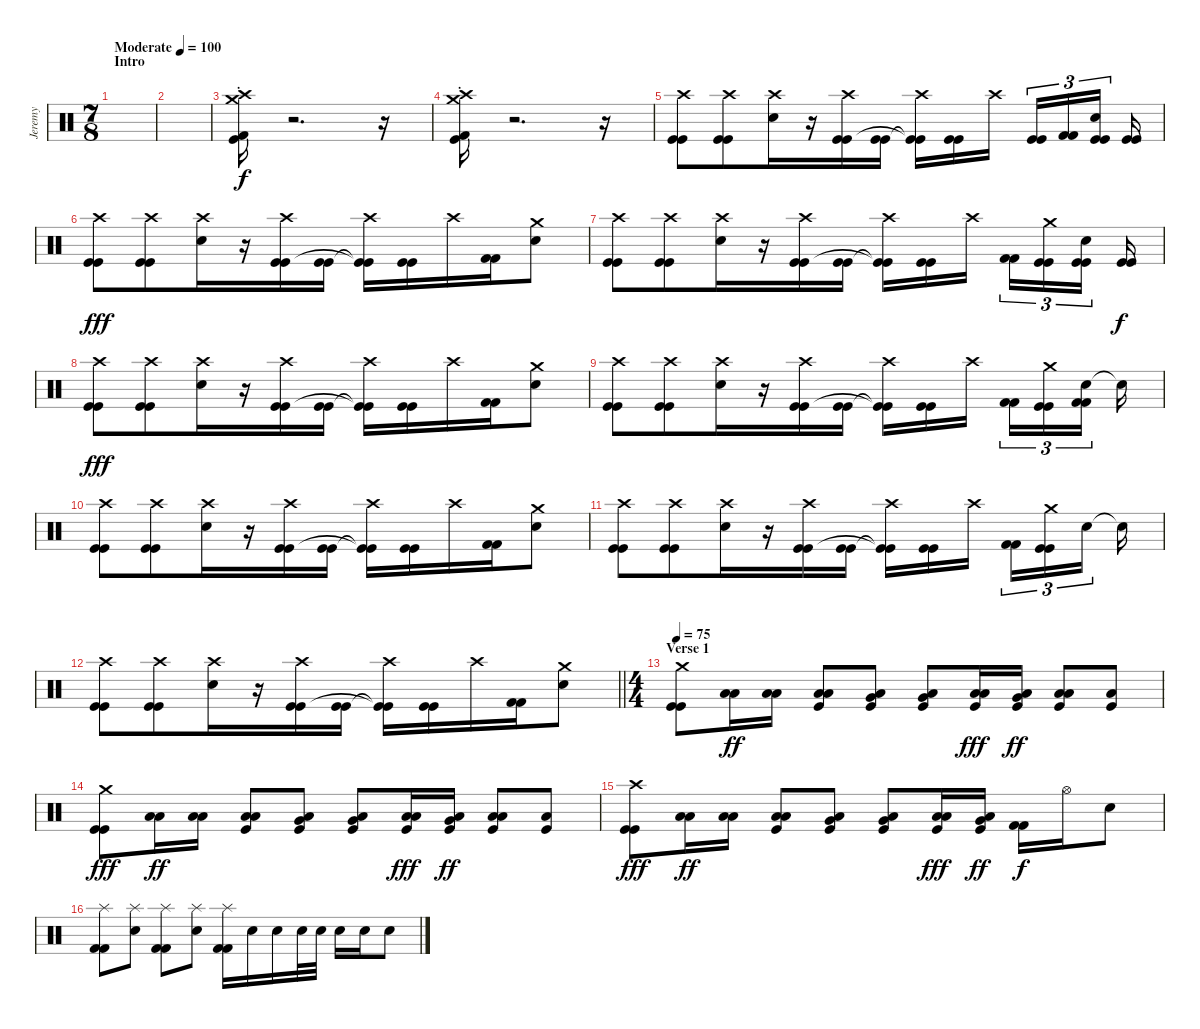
\track ("Jeremy" "Jeremy") {instrument percussion}
\staff {score}
\articulation defaults
\ts (7 8)
\section ("" "Intro")
\tempo (100 "Moderate")
\clef neutral
\ks c
|
|
("Crash high (hit)" "Crash medium (hit)" "Kick (hit) 2"{st} "Kick (hit)").16 r.2{d} r.16 |
("Crash high (hit)" "Crash medium (hit)" "Kick (hit) 2"{st} "Kick (hit)").16 r.2{d} r.16 |
("Crash high (hit)" "Kick (hit)" "Kick (hit)").8 ("Crash high (hit)" "Kick (hit)" "Kick (hit)").8 ("Crash high (hit)" "Electric Snare (hit)").16 r.16 ("Crash high (hit)" "Kick (hit)" "Kick (hit)").16 ("Kick (hit)" "Kick (hit)").16 ("Crash high (hit)" "Kick (hit)"{t} "Kick (hit)"{t}).16 ("Kick (hit)" "Kick (hit)").16 "Crash high (hit)".16{beam splitsecondary} ("Kick (hit)" "Kick (hit)").16{tu (3 2) dy f} ("Kick (hit) 2" "Kick (hit) 2").16{tu (3 2)} ("Electric Snare (hit)" "Kick (hit)" "Kick (hit)").16{tu (3 2)} ("Kick (hit)" "Kick (hit)").16 |
("Crash high (hit)" "Kick (hit)" "Kick (hit)").8{dy fff} ("Crash high (hit)" "Kick (hit)" "Kick (hit)").8 ("Crash high (hit)" "Electric Snare (hit)").16 r.16 ("Crash high (hit)" "Kick (hit)" "Kick (hit)").16 ("Kick (hit)" "Kick (hit)").16 ("Crash high (hit)" "Kick (hit)"{t} "Kick (hit)"{t}).16 ("Kick (hit)" "Kick (hit)").16 "Crash high (hit)".16 ("Kick (hit) 2" "Kick (hit) 2").16 ("Crash medium (hit)" "Electric Snare (hit)").8 |
("Crash high (hit)" "Kick (hit)" "Kick (hit)").8 ("Crash high (hit)" "Kick (hit)" "Kick (hit)").8 ("Crash high (hit)" "Electric Snare (hit)").16 r.16 ("Crash high (hit)" "Kick (hit)" "Kick (hit)").16 ("Kick (hit)" "Kick (hit)").16 ("Crash high (hit)" "Kick (hit)"{t} "Kick (hit)"{t}).16 ("Kick (hit)" "Kick (hit)").16 "Crash high (hit)".16{beam splitsecondary} ("Kick (hit) 2" "Kick (hit) 2").16{tu (3 2)} ("Crash medium (hit)" "Kick (hit)" "Kick (hit)").16{tu (3 2)} ("Electric Snare (hit)" "Kick (hit)" "Kick (hit)").16{tu (3 2)} ("Kick (hit)" "Kick (hit)").16{dy f} |
("Crash high (hit)" "Kick (hit)" "Kick (hit)").8{dy fff} ("Crash high (hit)" "Kick (hit)" "Kick (hit)").8 ("Crash high (hit)" "Electric Snare (hit)").16 r.16 ("Crash high (hit)" "Kick (hit)" "Kick (hit)").16 ("Kick (hit)" "Kick (hit)").16 ("Crash high (hit)" "Kick (hit)"{t} "Kick (hit)"{t}).16 ("Kick (hit)" "Kick (hit)").16 "Crash high (hit)".16 ("Kick (hit) 2" "Kick (hit) 2").16 ("Crash medium (hit)" "Electric Snare (hit)").8 |
("Crash high (hit)" "Kick (hit)" "Kick (hit)").8 ("Crash high (hit)" "Kick (hit)" "Kick (hit)").8 ("Crash high (hit)" "Electric Snare (hit)").16 r.16 ("Crash high (hit)" "Kick (hit)" "Kick (hit)").16 ("Kick (hit)" "Kick (hit)").16 ("Crash high (hit)" "Kick (hit)"{t} "Kick (hit)"{t}).16 ("Kick (hit)" "Kick (hit)").16 "Crash high (hit)".16{beam splitsecondary} ("Kick (hit) 2" "Kick (hit) 2").16{tu (3 2)} ("Crash medium (hit)" "Kick (hit)" "Kick (hit)").16{tu (3 2)} ("Electric Snare (hit)" "Kick (hit) 2" "Kick (hit) 2").16{tu (3 2)} "Electric Snare (hit)"{t}.16 |
("Crash high (hit)" "Kick (hit)" "Kick (hit)").8 ("Crash high (hit)" "Kick (hit)" "Kick (hit)").8 ("Crash high (hit)" "Electric Snare (hit)").16 r.16 ("Crash high (hit)" "Kick (hit)" "Kick (hit)").16 ("Kick (hit)" "Kick (hit)").16 ("Crash high (hit)" "Kick (hit)"{t} "Kick (hit)"{t}).16 ("Kick (hit)" "Kick (hit)").16 "Crash high (hit)".16 ("Kick (hit) 2" "Kick (hit) 2").16 ("Crash medium (hit)" "Electric Snare (hit)").8 |
("Crash high (hit)" "Kick (hit)" "Kick (hit)").8 ("Crash high (hit)" "Kick (hit)" "Kick (hit)").8 ("Crash high (hit)" "Electric Snare (hit)").16 r.16 ("Crash high (hit)" "Kick (hit)" "Kick (hit)").16 ("Kick (hit)" "Kick (hit)").16 ("Crash high (hit)" "Kick (hit)"{t} "Kick (hit)"{t}).16 ("Kick (hit)" "Kick (hit)").16 "Crash high (hit)".16{beam splitsecondary} ("Kick (hit) 2" "Kick (hit) 2").16{tu (3 2)} ("Crash medium (hit)" "Kick (hit)" "Kick (hit)").16{tu (3 2)} "Electric Snare (hit)".16{tu (3 2)} "Electric Snare (hit)"{t}.16 |
\barLineRight lightlight
("Crash high (hit)" "Kick (hit)" "Kick (hit)").8 ("Crash high (hit)" "Kick (hit)" "Kick (hit)").8 ("Crash high (hit)" "Electric Snare (hit)").16 r.16 ("Crash high (hit)" "Kick (hit)" "Kick (hit)").16 ("Kick (hit)" "Kick (hit)").16 ("Crash high (hit)" "Kick (hit)"{t} "Kick (hit)"{t}).16 ("Kick (hit)" "Kick (hit)").16 "Crash high (hit)".16 ("Kick (hit) 2" "Kick (hit) 2").16 ("Crash medium (hit)" "Electric Snare (hit)").8 |
\ts (4 4)
\section ("" "Verse 1")
\tempo 75
("Crash medium (hit)" "Kick (hit)" "Kick (hit)").8 ("Low Tom (hit)" "Low Floor Tom (hit)").16{dy ff} ("Low Tom (hit)" "Low Floor Tom (hit)").16 ("Low Tom (hit)" "Low Floor Tom (hit)" "Kick (hit)").8 ("Very Low Tom (hit)" "Low Floor Tom (hit)" "Kick (hit)").8 ("Low Floor Tom (hit)" "Very Low Tom (hit)" "Kick (hit)").8 ("Low Floor Tom (hit)" "Low Tom (hit)" "Kick (hit)").16{dy fff} ("Very Low Tom (hit)" "Low Tom (hit)" "Kick (hit)").16{dy ff} ("Low Tom (hit)" "Low Floor Tom (hit)" "Kick (hit)").8 ("Low Floor Tom (hit)" "Kick (hit)").8 |
("Crash medium (hit)" "Kick (hit)" "Kick (hit)").8{dy fff} ("Low Tom (hit)" "Low Floor Tom (hit)").16{dy ff} ("Low Tom (hit)" "Low Floor Tom (hit)").16 ("Low Tom (hit)" "Low Floor Tom (hit)" "Kick (hit)").8 ("Very Low Tom (hit)" "Low Floor Tom (hit)" "Kick (hit)").8 ("Low Floor Tom (hit)" "Very Low Tom (hit)" "Kick (hit)").8 ("Low Floor Tom (hit)" "Low Tom (hit)" "Kick (hit)").16{dy fff} ("Very Low Tom (hit)" "Low Tom (hit)" "Kick (hit)").16{dy ff} ("Low Tom (hit)" "Low Floor Tom (hit)" "Kick (hit)").8 ("Low Floor Tom (hit)" "Kick (hit)").8 |
("Crash high (hit)" "Kick (hit)" "Kick (hit)").8{dy fff} ("Low Tom (hit)" "Low Floor Tom (hit)").16{dy ff} ("Low Tom (hit)" "Low Floor Tom (hit)").16 ("Low Tom (hit)" "Low Floor Tom (hit)" "Kick (hit)").8 ("Very Low Tom (hit)" "Low Floor Tom (hit)" "Kick (hit)").8 ("Low Floor Tom (hit)" "Very Low Tom (hit)" "Kick (hit)").8 ("Low Floor Tom (hit)" "Low Tom (hit)" "Kick (hit)").16{dy fff} ("Very Low Tom (hit)" "Low Tom (hit)" "Kick (hit)").16{dy ff} ("Kick (hit) 2" "Kick (hit) 2").16{dy f} "Hi-Hat (open)".16 "Electric Snare (hit)".8 |
("Splash (hit)" "Kick (hit) 2" "Kick (hit) 2").8 ("Splash (hit)" "Electric Snare (hit)").8 ("Splash (hit)" "Kick (hit) 2" "Kick (hit) 2").8 ("Splash (hit)" "Electric Snare (hit)").8 ("Splash (hit)" "Kick (hit) 2" "Kick (hit) 2").16 "Electric Snare (hit)".16 "Electric Snare (hit)".16 "Electric Snare (hit)".32 "Electric Snare (hit)".32 "Electric Snare (hit)".16 "Electric Snare (hit)".16 "Electric Snare (hit)".8
